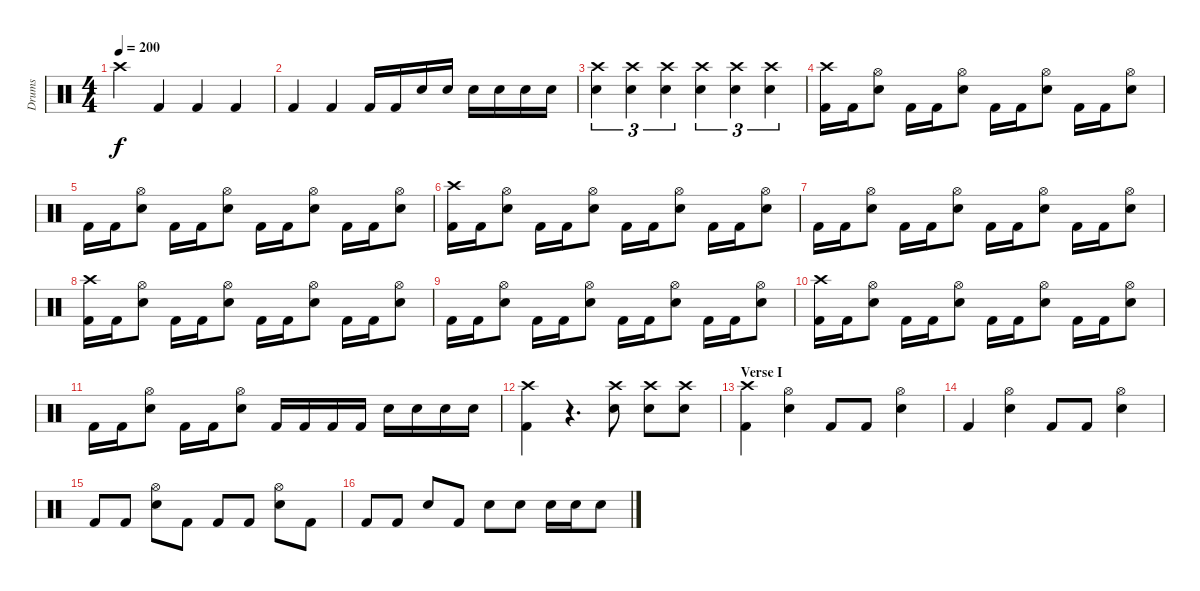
\track ("Drums" "Drums") {instrument percussion}
\staff {score}
\articulation defaults
\ts (4 4)
\tempo 200
\clef neutral
\ks c "Crash high (hit)".4{dy f} "Kick (hit) 2".4 "Kick (hit) 2".4 "Kick (hit) 2".4
|
"Kick (hit) 2".4 "Kick (hit) 2".4 "Kick (hit) 2".16 "Kick (hit) 2".16 "Snare (hit) 2".16 "Snare (hit) 2".16 "Snare (hit) 2".16 "Snare (hit) 2".16 "Snare (hit) 2".16 "Snare (hit) 2".16 |
("Crash high (hit)" "Snare (hit) 2").4{tu (3 2)} ("Crash high (hit)" "Snare (hit) 2").4{tu (3 2)} ("Crash high (hit)" "Snare (hit) 2").4{tu (3 2)} ("Crash high (hit)" "Snare (hit) 2").4{tu (3 2)} ("Crash high (hit)" "Snare (hit) 2").4{tu (3 2)} ("Crash high (hit)" "Snare (hit) 2").4{tu (3 2)} |
("Crash high (hit)" "Kick (hit) 2").16 "Kick (hit) 2".16 ("Hi-Hat (open)" "Snare (hit) 2").8 "Kick (hit) 2".16 "Kick (hit) 2".16 ("Hi-Hat (open)" "Snare (hit) 2").8 "Kick (hit) 2".16 "Kick (hit) 2".16 ("Hi-Hat (open)" "Snare (hit) 2").8 "Kick (hit) 2".16 "Kick (hit) 2".16 ("Hi-Hat (open)" "Snare (hit) 2").8 |
"Kick (hit) 2".16 "Kick (hit) 2".16 ("Hi-Hat (open)" "Snare (hit) 2").8 "Kick (hit) 2".16 "Kick (hit) 2".16 ("Hi-Hat (open)" "Snare (hit) 2").8 "Kick (hit) 2".16 "Kick (hit) 2".16 ("Hi-Hat (open)" "Snare (hit) 2").8 "Kick (hit) 2".16 "Kick (hit) 2".16 ("Hi-Hat (open)" "Snare (hit) 2").8 |
("Crash high (hit)" "Kick (hit) 2").16 "Kick (hit) 2".16 ("Hi-Hat (open)" "Snare (hit) 2").8 "Kick (hit) 2".16 "Kick (hit) 2".16 ("Hi-Hat (open)" "Snare (hit) 2").8 "Kick (hit) 2".16 "Kick (hit) 2".16 ("Hi-Hat (open)" "Snare (hit) 2").8 "Kick (hit) 2".16 "Kick (hit) 2".16 ("Hi-Hat (open)" "Snare (hit) 2").8 |
"Kick (hit) 2".16 "Kick (hit) 2".16 ("Hi-Hat (open)" "Snare (hit) 2").8 "Kick (hit) 2".16 "Kick (hit) 2".16 ("Hi-Hat (open)" "Snare (hit) 2").8 "Kick (hit) 2".16 "Kick (hit) 2".16 ("Hi-Hat (open)" "Snare (hit) 2").8 "Kick (hit) 2".16 "Kick (hit) 2".16 ("Hi-Hat (open)" "Snare (hit) 2").8 |
("Crash high (hit)" "Kick (hit) 2").16 "Kick (hit) 2".16 ("Hi-Hat (open)" "Snare (hit) 2").8 "Kick (hit) 2".16 "Kick (hit) 2".16 ("Hi-Hat (open)" "Snare (hit) 2").8 "Kick (hit) 2".16 "Kick (hit) 2".16 ("Hi-Hat (open)" "Snare (hit) 2").8 "Kick (hit) 2".16 "Kick (hit) 2".16 ("Hi-Hat (open)" "Snare (hit) 2").8 |
"Kick (hit) 2".16 "Kick (hit) 2".16 ("Hi-Hat (open)" "Snare (hit) 2").8 "Kick (hit) 2".16 "Kick (hit) 2".16 ("Hi-Hat (open)" "Snare (hit) 2").8 "Kick (hit) 2".16 "Kick (hit) 2".16 ("Hi-Hat (open)" "Snare (hit) 2").8 "Kick (hit) 2".16 "Kick (hit) 2".16 ("Hi-Hat (open)" "Snare (hit) 2").8 |
("Crash high (hit)" "Kick (hit) 2").16 "Kick (hit) 2".16 ("Hi-Hat (open)" "Snare (hit) 2").8 "Kick (hit) 2".16 "Kick (hit) 2".16 ("Hi-Hat (open)" "Snare (hit) 2").8 "Kick (hit) 2".16 "Kick (hit) 2".16 ("Hi-Hat (open)" "Snare (hit) 2").8 "Kick (hit) 2".16 "Kick (hit) 2".16 ("Hi-Hat (open)" "Snare (hit) 2").8 |
"Kick (hit) 2".16 "Kick (hit) 2".16 ("Hi-Hat (open)" "Snare (hit) 2").8 "Kick (hit) 2".16 "Kick (hit) 2".16 ("Hi-Hat (open)" "Snare (hit) 2").8 "Kick (hit) 2".16 "Kick (hit) 2".16 "Kick (hit) 2".16 "Kick (hit) 2".16 "Snare (hit) 2".16 "Snare (hit) 2".16 "Snare (hit) 2".16 "Snare (hit) 2".16 |
("Crash high (hit)" "Kick (hit) 2").4 r.4{d} ("Crash high (hit)" "Snare (hit) 2").8 ("Crash high (hit)" "Snare (hit) 2").8 ("Crash high (hit)" "Snare (hit) 2").8 |
\section ("" "Verse I")
("Crash high (hit)" "Kick (hit) 2").4 ("Hi-Hat (open)" "Snare (hit) 2").4 "Kick (hit) 2".8 "Kick (hit) 2".8 ("Hi-Hat (open)" "Snare (hit) 2").4 |
"Kick (hit) 2".4 ("Hi-Hat (open)" "Snare (hit) 2").4 "Kick (hit) 2".8 "Kick (hit) 2".8 ("Hi-Hat (open)" "Snare (hit) 2").4 |
"Kick (hit) 2".8 "Kick (hit) 2".8 ("Hi-Hat (open)" "Snare (hit) 2").8 "Kick (hit) 2".8 "Kick (hit) 2".8 "Kick (hit) 2".8 ("Hi-Hat (open)" "Snare (hit) 2").8 "Kick (hit) 2".8 |
"Kick (hit) 2".8 "Kick (hit) 2".8 "Snare (hit) 2".8 "Kick (hit) 2".8 "Snare (hit) 2".8 "Snare (hit) 2".8 "Snare (hit) 2".16 "Snare (hit) 2".16 "Snare (hit) 2".8
